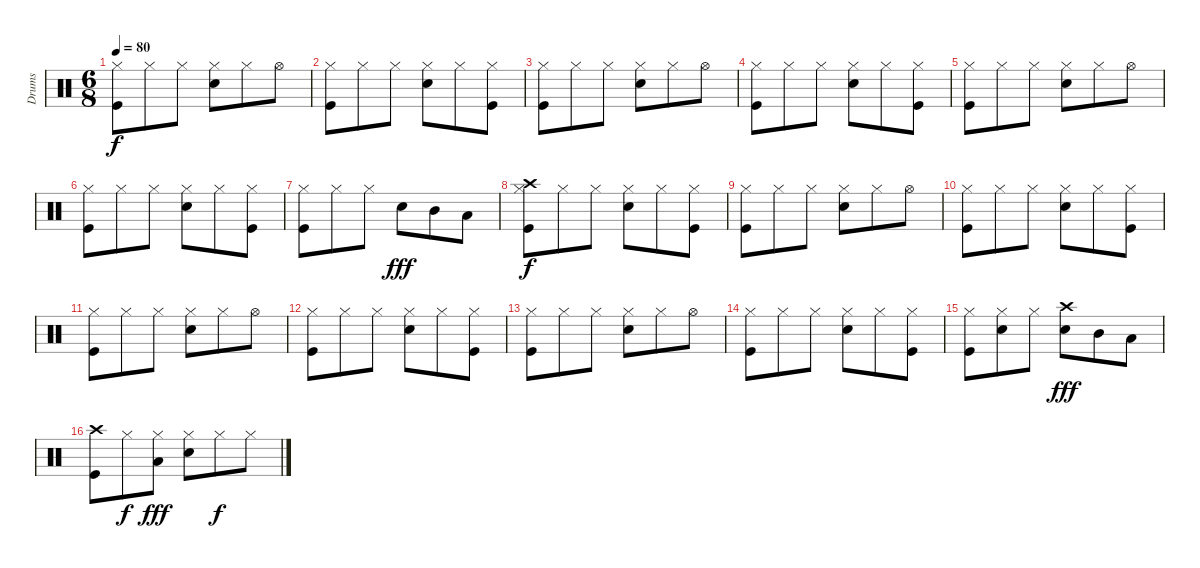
\track ("Drums" "Drums") {instrument percussion}
\staff {score}
\articulation defaults
\ts (6 8)
\tempo 80
\clef neutral
\ks c
("Hi-Hat (closed)" "Kick (hit)").8{dy f} "Hi-Hat (closed)".8 "Hi-Hat (closed)".8 ("Hi-Hat (closed)" "Electric Snare (hit)").8 "Hi-Hat (closed)".8 "Hi-Hat (open)".8 |
("Hi-Hat (closed)" "Kick (hit)").8 "Hi-Hat (closed)".8 "Hi-Hat (closed)".8 ("Hi-Hat (closed)" "Electric Snare (hit)").8 "Hi-Hat (closed)".8 ("Hi-Hat (closed)" "Kick (hit)").8 |
("Hi-Hat (closed)" "Kick (hit)").8 "Hi-Hat (closed)".8 "Hi-Hat (closed)".8 ("Hi-Hat (closed)" "Electric Snare (hit)").8 "Hi-Hat (closed)".8 "Hi-Hat (open)".8 |
("Hi-Hat (closed)" "Kick (hit)").8 "Hi-Hat (closed)".8 "Hi-Hat (closed)".8 ("Hi-Hat (closed)" "Electric Snare (hit)").8 "Hi-Hat (closed)".8 ("Hi-Hat (closed)" "Kick (hit)").8 |
("Hi-Hat (closed)" "Kick (hit)").8 "Hi-Hat (closed)".8 "Hi-Hat (closed)".8 ("Hi-Hat (closed)" "Electric Snare (hit)").8 "Hi-Hat (closed)".8 "Hi-Hat (open)".8 |
("Hi-Hat (closed)" "Kick (hit)").8 "Hi-Hat (closed)".8 "Hi-Hat (closed)".8 ("Hi-Hat (closed)" "Electric Snare (hit)").8 "Hi-Hat (closed)".8 ("Hi-Hat (closed)" "Kick (hit)").8 |
("Hi-Hat (closed)" "Kick (hit)").8 "Hi-Hat (closed)".8 "Hi-Hat (closed)".8 "Electric Snare (hit)".8{dy fff} "Mid Tom (hit)".8 "Low Tom (hit)".8 |
("Hi-Hat (closed)" "Kick (hit)" "Crash high (hit)").8{dy f} "Hi-Hat (closed)".8 "Hi-Hat (closed)".8 ("Hi-Hat (closed)" "Electric Snare (hit)").8 "Hi-Hat (closed)".8 ("Hi-Hat (closed)" "Kick (hit)").8 |
("Hi-Hat (closed)" "Kick (hit)").8 "Hi-Hat (closed)".8 "Hi-Hat (closed)".8 ("Hi-Hat (closed)" "Electric Snare (hit)").8 "Hi-Hat (closed)".8 "Hi-Hat (open)".8 |
("Hi-Hat (closed)" "Kick (hit)").8 "Hi-Hat (closed)".8 "Hi-Hat (closed)".8 ("Hi-Hat (closed)" "Electric Snare (hit)").8 "Hi-Hat (closed)".8 ("Hi-Hat (closed)" "Kick (hit)").8 |
("Hi-Hat (closed)" "Kick (hit)").8 "Hi-Hat (closed)".8 "Hi-Hat (closed)".8 ("Hi-Hat (closed)" "Electric Snare (hit)").8 "Hi-Hat (closed)".8 "Hi-Hat (open)".8 |
("Hi-Hat (closed)" "Kick (hit)").8 "Hi-Hat (closed)".8 "Hi-Hat (closed)".8 ("Hi-Hat (closed)" "Electric Snare (hit)").8 "Hi-Hat (closed)".8 ("Hi-Hat (closed)" "Kick (hit)").8 |
("Hi-Hat (closed)" "Kick (hit)").8 "Hi-Hat (closed)".8 "Hi-Hat (closed)".8 ("Hi-Hat (closed)" "Electric Snare (hit)").8 "Hi-Hat (closed)".8 "Hi-Hat (open)".8 |
("Hi-Hat (closed)" "Kick (hit)").8 "Hi-Hat (closed)".8 "Hi-Hat (closed)".8 ("Hi-Hat (closed)" "Electric Snare (hit)").8 "Hi-Hat (closed)".8 ("Hi-Hat (closed)" "Kick (hit)").8 |
("Hi-Hat (closed)" "Kick (hit)").8 ("Hi-Hat (closed)" "Electric Snare (hit)").8 "Hi-Hat (closed)".8 ("Crash high (hit)" "Electric Snare (hit)").8{dy fff} "Mid Tom (hit)".8 "Low Tom (hit)".8 |
("Crash high (hit)" "Kick (hit)").8 "Hi-Hat (closed)".8{dy f} ("Hi-Hat (closed)" "Low Tom (hit)").8{dy fff} ("Hi-Hat (closed)" "Electric Snare (hit)").8 "Hi-Hat (closed)".8{dy f} "Hi-Hat (closed)".8
